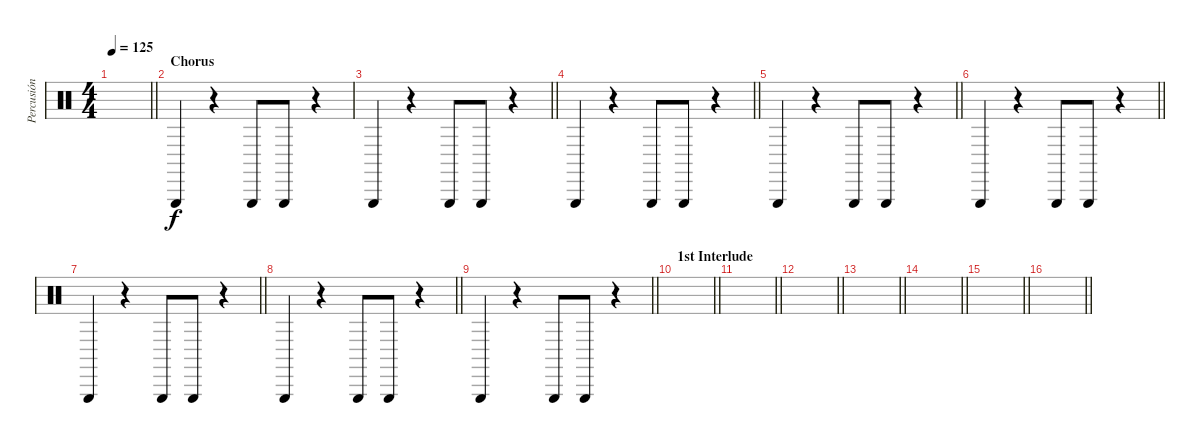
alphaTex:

\track ("Percusión" "Percusión") {instrument percussion}
\staff {score}
\articulation defaults
\ts (4 4)
\tempo 125
\clef neutral
\barLineRight lightlight
\ks c
|
\section ("" "Chorus")
"Triangle (hit)".4 r.4 "Triangle (hit)".8 "Triangle (hit)".8 r.4 |
\barLineRight lightlight "Triangle (hit)".4
r.4 "Triangle (hit)".8 "Triangle (hit)".8 r.4 |
\barLineRight lightlight "Triangle (hit)".4
r.4 "Triangle (hit)".8 "Triangle (hit)".8 r.4 |
\barLineRight lightlight "Triangle (hit)".4
r.4 "Triangle (hit)".8 "Triangle (hit)".8 r.4 |
\barLineRight lightlight "Triangle (hit)".4
r.4 "Triangle (hit)".8 "Triangle (hit)".8 r.4 |
\barLineRight lightlight "Triangle (hit)".4
r.4 "Triangle (hit)".8 "Triangle (hit)".8 r.4 |
\barLineRight lightlight "Triangle (hit)".4
r.4 "Triangle (hit)".8 "Triangle (hit)".8 r.4 |
\barLineRight lightlight "Triangle (hit)".4
r.4 "Triangle (hit)".8 "Triangle (hit)".8 r.4 |
\section ("" "1st Interlude")
\barLineRight lightlight
|
\barLineRight lightlight
|
\barLineRight lightlight
|
\barLineRight lightlight
|
\barLineRight lightlight
|
\barLineRight lightlight
|
\barLineRight lightlight
